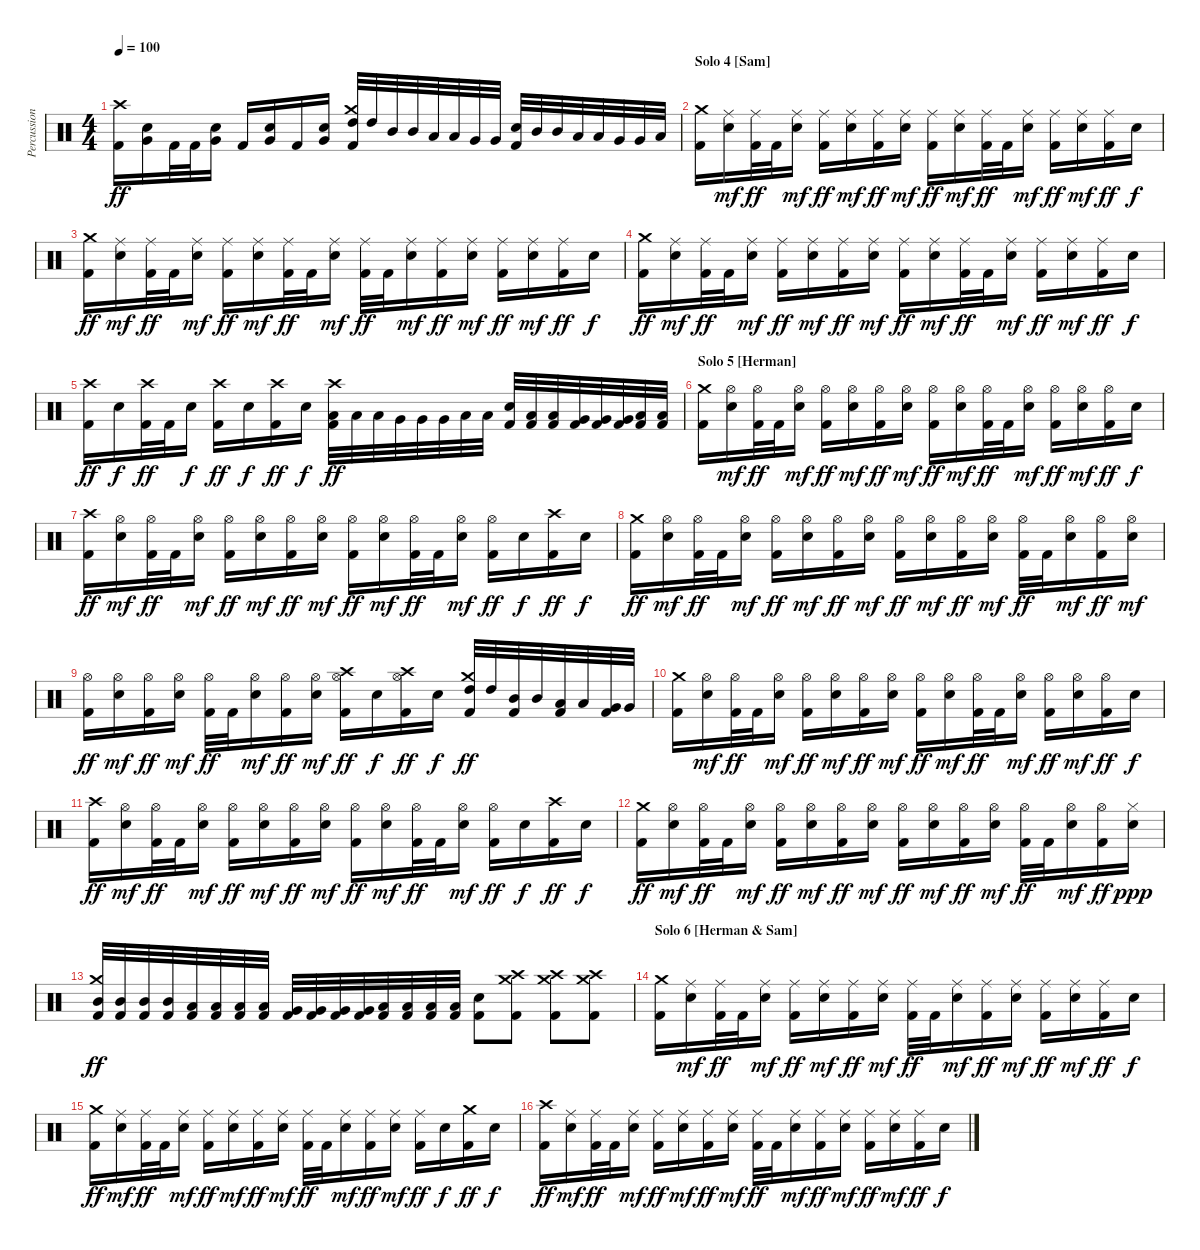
\track ("Percussion" "Percussion") {instrument percussion}
\staff {score}
\articulation defaults
\ts (4 4)
\tempo 100
\clef neutral
\ks c
("Crash high (hit)" "Kick (hit) 2").16{dy ff} ("Very Low Tom (hit)" "Snare (hit) 2").16 "Kick (hit) 2".32 "Kick (hit) 2".32 ("Very Low Tom (hit)" "Snare (hit) 2").16 "Kick (hit) 2".16 ("Very Low Tom (hit)" "Snare (hit) 2").16 "Kick (hit) 2".16 ("Very Low Tom (hit)" "Snare (hit) 2").16 ("Crash medium (hit)" "High Tom (hit)" "Kick (hit) 2").32 "High Tom (hit)".32 "Mid Tom (hit)".32 "Mid Tom (hit)".32 "Low Tom (hit)".32 "Low Tom (hit)".32 "Very Low Tom (hit)".32 "Very Low Tom (hit)".32 ("Snare (hit) 2" "Kick (hit) 2").32 "Mid Tom (hit)".32 "Mid Tom (hit)".32 "Low Tom (hit)".32 "Low Tom (hit)".32 "Very Low Tom (hit)".32 "Very Low Tom (hit)".32 "Low Floor Tom (hit)".32 |
\section ("" "Solo 4 [Sam]")
("Crash medium (hit)" "Kick (hit) 2").16 ("Ride (middle)" "Snare (hit) 2").16{dy mf} ("Ride (middle)" "Kick (hit) 2").32{dy ff} "Kick (hit) 2".32 ("Ride (middle)" "Snare (hit) 2").16{dy mf} ("Ride (middle)" "Kick (hit) 2").16{dy ff} ("Ride (middle)" "Snare (hit) 2").16{dy mf} ("Ride (middle)" "Kick (hit) 2").16{dy ff} ("Ride (middle)" "Snare (hit) 2").16{dy mf} ("Ride (middle)" "Kick (hit) 2").16{dy ff} ("Ride (middle)" "Snare (hit) 2").16{dy mf} ("Ride (middle)" "Kick (hit) 2").32{dy ff} "Kick (hit) 2".32 ("Ride (middle)" "Snare (hit) 2").16{dy mf} ("Ride (middle)" "Kick (hit) 2").16{dy ff} ("Ride (middle)" "Snare (hit) 2").16{dy mf} ("Ride (middle)" "Kick (hit) 2").16{dy ff} "Snare (hit) 2".16{dy f} |
("Crash medium (hit)" "Kick (hit) 2").16{dy ff} ("Ride (middle)" "Snare (hit) 2").16{dy mf} ("Ride (middle)" "Kick (hit) 2").32{dy ff} "Kick (hit) 2".32 ("Ride (middle)" "Snare (hit) 2").16{dy mf} ("Ride (middle)" "Kick (hit) 2").16{dy ff} ("Ride (middle)" "Snare (hit) 2").16{dy mf} ("Ride (middle)" "Kick (hit) 2").32{dy ff} "Kick (hit) 2".32 ("Ride (middle)" "Snare (hit) 2").16{dy mf} ("Ride (middle)" "Kick (hit) 2").32{dy ff} "Kick (hit) 2".32 ("Ride (middle)" "Snare (hit) 2").16{dy mf} ("Ride (middle)" "Kick (hit) 2").16{dy ff} ("Ride (middle)" "Snare (hit) 2").16{dy mf} ("Ride (middle)" "Kick (hit) 2").16{dy ff} ("Ride (middle)" "Snare (hit) 2").16{dy mf} ("Ride (middle)" "Kick (hit) 2").16{dy ff} "Snare (hit) 2".16{dy f} |
("Crash medium (hit)" "Kick (hit) 2").16{dy ff} ("Ride (middle)" "Snare (hit) 2").16{dy mf} ("Ride (middle)" "Kick (hit) 2").32{dy ff} "Kick (hit) 2".32 ("Ride (middle)" "Snare (hit) 2").16{dy mf} ("Ride (middle)" "Kick (hit) 2").16{dy ff} ("Ride (middle)" "Snare (hit) 2").16{dy mf} ("Ride (middle)" "Kick (hit) 2").16{dy ff} ("Ride (middle)" "Snare (hit) 2").16{dy mf} ("Ride (middle)" "Kick (hit) 2").16{dy ff} ("Ride (middle)" "Snare (hit) 2").16{dy mf} ("Ride (middle)" "Kick (hit) 2").32{dy ff} "Kick (hit) 2".32 ("Ride (middle)" "Snare (hit) 2").16{dy mf} ("Ride (middle)" "Kick (hit) 2").16{dy ff} ("Ride (middle)" "Snare (hit) 2").16{dy mf} ("Ride (middle)" "Kick (hit) 2").16{dy ff} "Snare (hit) 2".16{dy f} |
("Crash high (hit)" "Kick (hit) 2").16{dy ff} "Snare (hit) 2".16{dy f} ("Crash high (hit)" "Kick (hit) 2").32{dy ff} "Kick (hit) 2".32 "Snare (hit) 2".16{dy f} ("Crash high (hit)" "Kick (hit) 2").16{dy ff} "Snare (hit) 2".16{dy f} ("Crash high (hit)" "Kick (hit) 2").16{dy ff} "Snare (hit) 2".16{dy f} ("Crash high (hit)" "Low Tom (hit)" "Kick (hit) 2").32{dy ff} "Low Tom (hit)".32 "Low Tom (hit)".32 "Very Low Tom (hit)".32 "Very Low Tom (hit)".32 "Very Low Tom (hit)".32 "Low Floor Tom (hit)".32 "Low Floor Tom (hit)".32 ("Snare (hit) 2" "Kick (hit) 2").32 ("Low Tom (hit)" "Kick (hit) 2").32 ("Low Tom (hit)" "Kick (hit) 2").32 ("Very Low Tom (hit)" "Kick (hit) 2").32 ("Very Low Tom (hit)" "Kick (hit) 2").32 ("Very Low Tom (hit)" "Kick (hit) 2").32 ("Low Floor Tom (hit)" "Kick (hit) 2").32 ("Low Floor Tom (hit)" "Kick (hit) 2").32 |
\section ("" "Solo 5 [Herman]")
("Crash medium (hit)" "Kick (hit) 2").16 ("Hi-Hat (open)" "Snare (hit) 2").16{dy mf} ("Hi-Hat (open)" "Kick (hit) 2").32{dy ff} "Kick (hit) 2".32 ("Hi-Hat (open)" "Snare (hit) 2").16{dy mf} ("Hi-Hat (open)" "Kick (hit) 2").16{dy ff} ("Hi-Hat (open)" "Snare (hit) 2").16{dy mf} ("Hi-Hat (open)" "Kick (hit) 2").16{dy ff} ("Hi-Hat (open)" "Snare (hit) 2").16{dy mf} ("Hi-Hat (open)" "Kick (hit) 2").16{dy ff} ("Hi-Hat (open)" "Snare (hit) 2").16{dy mf} ("Hi-Hat (open)" "Kick (hit) 2").32{dy ff} "Kick (hit) 2".32 ("Hi-Hat (open)" "Snare (hit) 2").16{dy mf} ("Hi-Hat (open)" "Kick (hit) 2").16{dy ff} ("Hi-Hat (open)" "Snare (hit) 2").16{dy mf} ("Hi-Hat (open)" "Kick (hit) 2").16{dy ff} "Snare (hit) 2".16{dy f} |
("Crash high (hit)" "Kick (hit) 2").16{dy ff} ("Hi-Hat (open)" "Snare (hit) 2").16{dy mf} ("Hi-Hat (open)" "Kick (hit) 2").32{dy ff} "Kick (hit) 2".32 ("Hi-Hat (open)" "Snare (hit) 2").16{dy mf} ("Hi-Hat (open)" "Kick (hit) 2").16{dy ff} ("Hi-Hat (open)" "Snare (hit) 2").16{dy mf} ("Hi-Hat (open)" "Kick (hit) 2").16{dy ff} ("Hi-Hat (open)" "Snare (hit) 2").16{dy mf} ("Hi-Hat (open)" "Kick (hit) 2").16{dy ff} ("Hi-Hat (open)" "Snare (hit) 2").16{dy mf} ("Hi-Hat (open)" "Kick (hit) 2").32{dy ff} "Kick (hit) 2".32 ("Hi-Hat (open)" "Snare (hit) 2").16{dy mf} ("Hi-Hat (open)" "Kick (hit) 2").16{dy ff} "Snare (hit) 2".16{dy f} ("Crash high (hit)" "Kick (hit) 2").16{dy ff} "Snare (hit) 2".16{dy f} |
("Crash medium (hit)" "Kick (hit) 2").16{dy ff} ("Hi-Hat (open)" "Snare (hit) 2").16{dy mf} ("Hi-Hat (open)" "Kick (hit) 2").32{dy ff} "Kick (hit) 2".32 ("Hi-Hat (open)" "Snare (hit) 2").16{dy mf} ("Hi-Hat (open)" "Kick (hit) 2").16{dy ff} ("Hi-Hat (open)" "Snare (hit) 2").16{dy mf} ("Hi-Hat (open)" "Kick (hit) 2").16{dy ff} ("Hi-Hat (open)" "Snare (hit) 2").16{dy mf} ("Hi-Hat (open)" "Kick (hit) 2").16{dy ff} ("Hi-Hat (open)" "Snare (hit) 2").16{dy mf} ("Hi-Hat (open)" "Kick (hit) 2").16{dy ff} ("Hi-Hat (open)" "Snare (hit) 2").16{dy mf} ("Hi-Hat (open)" "Kick (hit) 2").32{dy ff} "Kick (hit) 2".32 ("Hi-Hat (open)" "Snare (hit) 2").16{dy mf} ("Hi-Hat (open)" "Kick (hit) 2").16{dy ff} ("Hi-Hat (open)" "Snare (hit) 2").16{dy mf} |
("Hi-Hat (open)" "Kick (hit) 2").16{dy ff} ("Hi-Hat (open)" "Snare (hit) 2").16{dy mf} ("Hi-Hat (open)" "Kick (hit) 2").16{dy ff} ("Hi-Hat (open)" "Snare (hit) 2").16{dy mf} ("Hi-Hat (open)" "Kick (hit) 2").32{dy ff} "Kick (hit) 2".32 ("Hi-Hat (open)" "Snare (hit) 2").16{dy mf} ("Hi-Hat (open)" "Kick (hit) 2").16{dy ff} ("Hi-Hat (open)" "Snare (hit) 2").16{dy mf} ("Crash high (hit)" "Hi-Hat (open)" "Kick (hit) 2").16{dy ff} "Snare (hit) 2".16{dy f} ("Crash high (hit)" "Hi-Hat (open)" "Kick (hit) 2").16{dy ff} "Snare (hit) 2".16{dy f} ("Crash medium (hit)" "High Tom (hit)" "Kick (hit) 2").32{dy ff} "High Tom (hit)".32 ("Mid Tom (hit)" "Kick (hit) 2").32 "Mid Tom (hit)".32 ("Low Tom (hit)" "Kick (hit) 2").32 "Low Tom (hit)".32 ("Very Low Tom (hit)" "Kick (hit) 2").32 "Very Low Tom (hit)".32 |
("Crash medium (hit)" "Kick (hit) 2").16 ("Hi-Hat (open)" "Snare (hit) 2").16{dy mf} ("Hi-Hat (open)" "Kick (hit) 2").32{dy ff} "Kick (hit) 2".32 ("Hi-Hat (open)" "Snare (hit) 2").16{dy mf} ("Hi-Hat (open)" "Kick (hit) 2").16{dy ff} ("Hi-Hat (open)" "Snare (hit) 2").16{dy mf} ("Hi-Hat (open)" "Kick (hit) 2").16{dy ff} ("Hi-Hat (open)" "Snare (hit) 2").16{dy mf} ("Hi-Hat (open)" "Kick (hit) 2").16{dy ff} ("Hi-Hat (open)" "Snare (hit) 2").16{dy mf} ("Hi-Hat (open)" "Kick (hit) 2").32{dy ff} "Kick (hit) 2".32 ("Hi-Hat (open)" "Snare (hit) 2").16{dy mf} ("Hi-Hat (open)" "Kick (hit) 2").16{dy ff} ("Hi-Hat (open)" "Snare (hit) 2").16{dy mf} ("Hi-Hat (open)" "Kick (hit) 2").16{dy ff} "Snare (hit) 2".16{dy f} |
("Crash high (hit)" "Kick (hit) 2").16{dy ff} ("Hi-Hat (open)" "Snare (hit) 2").16{dy mf} ("Hi-Hat (open)" "Kick (hit) 2").32{dy ff} "Kick (hit) 2".32 ("Hi-Hat (open)" "Snare (hit) 2").16{dy mf} ("Hi-Hat (open)" "Kick (hit) 2").16{dy ff} ("Hi-Hat (open)" "Snare (hit) 2").16{dy mf} ("Hi-Hat (open)" "Kick (hit) 2").16{dy ff} ("Hi-Hat (open)" "Snare (hit) 2").16{dy mf} ("Hi-Hat (open)" "Kick (hit) 2").16{dy ff} ("Hi-Hat (open)" "Snare (hit) 2").16{dy mf} ("Hi-Hat (open)" "Kick (hit) 2").32{dy ff} "Kick (hit) 2".32 ("Hi-Hat (open)" "Snare (hit) 2").16{dy mf} ("Hi-Hat (open)" "Kick (hit) 2").16{dy ff} "Snare (hit) 2".16{dy f} ("Crash high (hit)" "Kick (hit) 2").16{dy ff} "Snare (hit) 2".16{dy f} |
("Crash medium (hit)" "Kick (hit) 2").16{dy ff} ("Hi-Hat (open)" "Snare (hit) 2").16{dy mf} ("Hi-Hat (open)" "Kick (hit) 2").32{dy ff} "Kick (hit) 2".32 ("Hi-Hat (open)" "Snare (hit) 2").16{dy mf} ("Hi-Hat (open)" "Kick (hit) 2").16{dy ff} ("Hi-Hat (open)" "Snare (hit) 2").16{dy mf} ("Hi-Hat (open)" "Kick (hit) 2").16{dy ff} ("Hi-Hat (open)" "Snare (hit) 2").16{dy mf} ("Hi-Hat (open)" "Kick (hit) 2").16{dy ff} ("Hi-Hat (open)" "Snare (hit) 2").16{dy mf} ("Hi-Hat (open)" "Kick (hit) 2").16{dy ff} ("Hi-Hat (open)" "Snare (hit) 2").16{dy mf} ("Hi-Hat (open)" "Kick (hit) 2").32{dy ff} "Kick (hit) 2".32 ("Hi-Hat (open)" "Snare (hit) 2").16{dy mf} ("Hi-Hat (open)" "Kick (hit) 2").16{dy ff} ("Hi-Hat (closed)" "Snare (hit) 2").16{dy ppp} |
("Crash medium (hit)" "Mid Tom (hit)" "Kick (hit) 2").32{dy ff} ("Mid Tom (hit)" "Kick (hit) 2").32 ("Mid Tom (hit)" "Kick (hit) 2").32 ("Mid Tom (hit)" "Kick (hit) 2").32 ("Low Tom (hit)" "Kick (hit) 2").32 ("Low Tom (hit)" "Kick (hit) 2").32 ("Low Tom (hit)" "Kick (hit) 2").32 ("Low Tom (hit)" "Kick (hit) 2").32 ("Very Low Tom (hit)" "Kick (hit) 2").32 ("Very Low Tom (hit)" "Kick (hit) 2").32 ("Very Low Tom (hit)" "Kick (hit) 2").32 ("Very Low Tom (hit)" "Kick (hit) 2").32 ("Low Floor Tom (hit)" "Kick (hit) 2").32 ("Low Floor Tom (hit)" "Kick (hit) 2").32 ("Low Floor Tom (hit)" "Kick (hit) 2").32 ("Low Floor Tom (hit)" "Kick (hit) 2").32 ("Snare (hit) 2" "Kick (hit) 2").8 ("Crash medium (hit)" "Crash high (hit)" "Kick (hit) 2").8 ("Crash high (hit)" "Crash medium (hit)" "Kick (hit) 2").8 ("Crash medium (hit)" "Crash high (hit)" "Kick (hit) 2").8 |
\section ("" "Solo 6 [Herman & Sam]")
("Crash medium (hit)" "Kick (hit) 2").16 ("Ride (middle)" "Snare (hit) 2").16{dy mf} ("Ride (middle)" "Kick (hit) 2").32{dy ff} "Kick (hit) 2".32 ("Ride (middle)" "Snare (hit) 2").16{dy mf} ("Ride (middle)" "Kick (hit) 2").16{dy ff} ("Ride (middle)" "Snare (hit) 2").16{dy mf} ("Ride (middle)" "Kick (hit) 2").16{dy ff} ("Ride (middle)" "Snare (hit) 2").16{dy mf} ("Ride (middle)" "Kick (hit) 2").32{dy ff} "Kick (hit) 2".32 ("Ride (middle)" "Snare (hit) 2").16{dy mf} ("Ride (middle)" "Kick (hit) 2").16{dy ff} ("Ride (middle)" "Snare (hit) 2").16{dy mf} ("Ride (middle)" "Kick (hit) 2").16{dy ff} ("Ride (middle)" "Snare (hit) 2").16{dy mf} ("Ride (middle)" "Kick (hit) 2").16{dy ff} "Snare (hit) 2".16{dy f} |
("Crash medium (hit)" "Kick (hit) 2").16{dy ff} ("Ride (middle)" "Snare (hit) 2").16{dy mf} ("Ride (middle)" "Kick (hit) 2").32{dy ff} "Kick (hit) 2".32 ("Ride (middle)" "Snare (hit) 2").16{dy mf} ("Ride (middle)" "Kick (hit) 2").16{dy ff} ("Ride (middle)" "Snare (hit) 2").16{dy mf} ("Ride (middle)" "Kick (hit) 2").16{dy ff} ("Ride (middle)" "Snare (hit) 2").16{dy mf} ("Ride (middle)" "Kick (hit) 2").32{dy ff} "Kick (hit) 2".32 ("Ride (middle)" "Snare (hit) 2").16{dy mf} ("Ride (middle)" "Kick (hit) 2").16{dy ff} ("Ride (middle)" "Snare (hit) 2").16{dy mf} ("Ride (middle)" "Kick (hit) 2").16{dy ff} "Snare (hit) 2".16{dy f} ("Crash medium (hit)" "Kick (hit) 2").16{dy ff} "Snare (hit) 2".16{dy f} |
("Crash high (hit)" "Kick (hit) 2").16{dy ff} ("Ride (middle)" "Snare (hit) 2").16{dy mf} ("Ride (middle)" "Kick (hit) 2").32{dy ff} "Kick (hit) 2".32 ("Ride (middle)" "Snare (hit) 2").16{dy mf} ("Ride (middle)" "Kick (hit) 2").16{dy ff} ("Ride (middle)" "Snare (hit) 2").16{dy mf} ("Ride (middle)" "Kick (hit) 2").16{dy ff} ("Ride (middle)" "Snare (hit) 2").16{dy mf} ("Ride (middle)" "Kick (hit) 2").32{dy ff} "Kick (hit) 2".32 ("Ride (middle)" "Snare (hit) 2").16{dy mf} ("Ride (middle)" "Kick (hit) 2").16{dy ff} ("Ride (middle)" "Snare (hit) 2").16{dy mf} ("Ride (middle)" "Kick (hit) 2").16{dy ff} ("Ride (middle)" "Snare (hit) 2").16{dy mf} ("Ride (middle)" "Kick (hit) 2").16{dy ff} "Snare (hit) 2".16{dy f}
